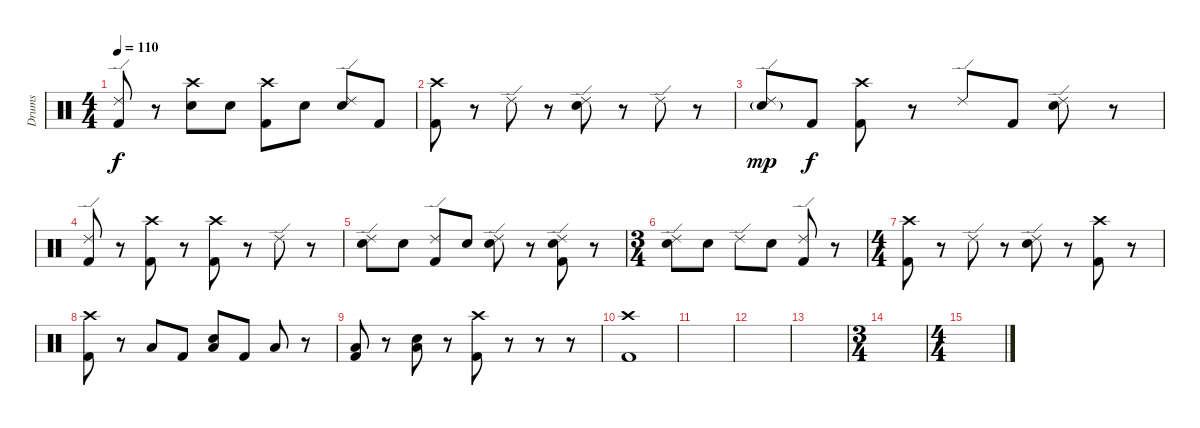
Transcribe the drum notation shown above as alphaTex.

\track ("Drums" "Drums") {instrument percussion}
\staff {score}
\articulation defaults
\ts (4 4)
\tempo 110
\clef neutral
\ks c
("Ride (edge) 2" "Kick (hit) 2").8{dy f} r.8 ("Crash high (hit)" "Snare (hit) 2").8 "Snare (hit) 2".8 ("Crash high (hit)" "Kick (hit) 2").8 "Snare (hit) 2".8 ("Ride (edge) 2" "Snare (hit) 2").8 "Kick (hit) 2".8 |
("Crash high (hit)" "Kick (hit) 2").8 r.8 "Ride (edge) 2".8 r.8 ("Ride (edge) 2" "Snare (hit) 2").8 r.8 "Ride (edge) 2".8 r.8 |
("Ride (edge) 2" "Snare (hit) 2"{g}).8{dy mp} "Kick (hit) 2".8{dy f} ("Crash high (hit)" "Kick (hit) 2").8 r.8 "Ride (edge) 2".8 "Kick (hit) 2".8 ("Ride (edge) 2" "Snare (hit) 2").8 r.8 |
("Ride (edge) 2" "Kick (hit) 2").8 r.8 ("Crash high (hit)" "Kick (hit) 2").8 r.8 ("Crash high (hit)" "Kick (hit) 2").8 r.8 "Ride (edge) 2".8 r.8 |
("Ride (edge) 2" "Snare (hit) 2").8 "Snare (hit) 2".8 ("Ride (edge) 2" "Kick (hit) 2").8 "Snare (hit) 2".8 ("Ride (edge) 2" "Snare (hit) 2").8 r.8 ("Ride (edge) 2" "Snare (hit) 2" "Kick (hit) 2").8 r.8 |
\ts (3 4)
("Ride (edge) 2" "Snare (hit) 2").8 "Snare (hit) 2".8 "Ride (edge) 2".8 "Snare (hit) 2".8 ("Ride (edge) 2" "Kick (hit) 2").8 r.8 |
\ts (4 4)
("Crash high (hit)" "Kick (hit) 2").8 r.8 "Ride (edge) 2".8 r.8 ("Ride (edge) 2" "Snare (hit) 2").8 r.8 ("Crash high (hit)" "Kick (hit) 2").8 r.8 |
("Crash high (hit)" "Kick (hit) 2").8 r.8 "Low Floor Tom (hit)".8 "Kick (hit) 2".8 ("Low Floor Tom (hit)" "Snare (hit) 2").8 "Kick (hit) 2".8 "Low Floor Tom (hit)".8 r.8 |
("Low Floor Tom (hit)" "Kick (hit) 2").8 r.8 ("Low Floor Tom (hit)" "Snare (hit) 2").8 r.8 ("Crash high (hit)" "Kick (hit) 2").8 r.8 r.8 r.8 |
("Crash high (hit)" "Kick (hit) 2").1 |
|
|
|
\ts (3 4)
|
\ts (4 4)
